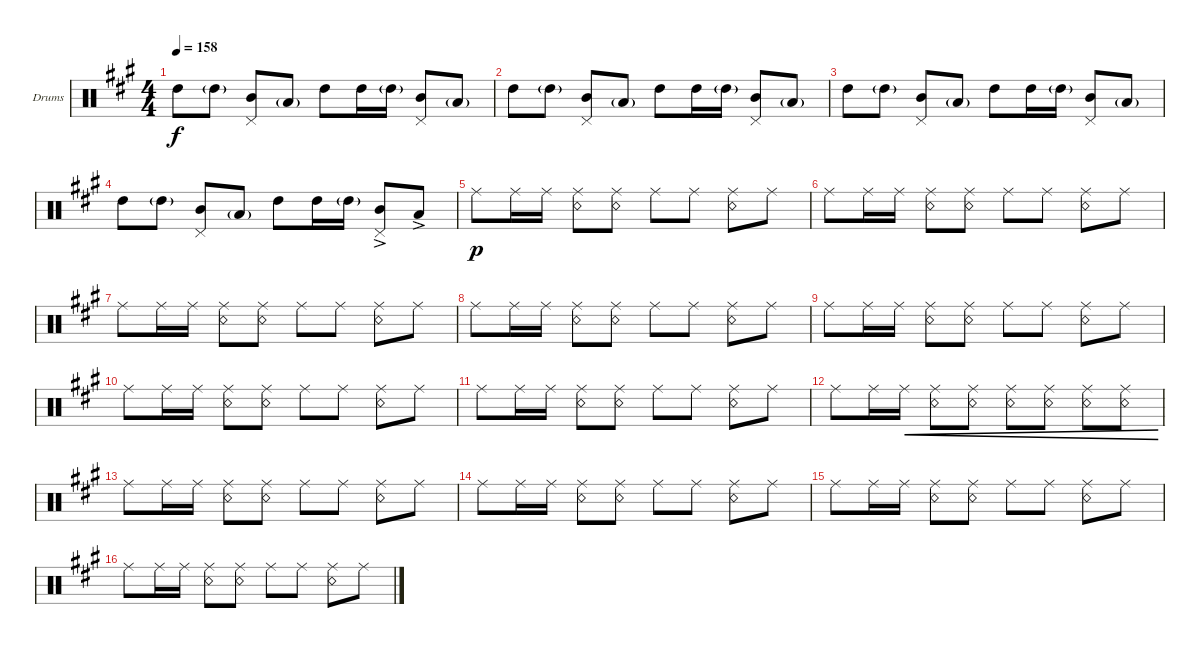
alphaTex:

\defaultSystemsLayout 4
\bracketExtendMode groupsimilarinstruments
\firstSystemTrackNameOrientation horizontal
\otherSystemsTrackNameOrientation horizontal
\track ("Drums" "Drums") {instrument percussion}
\staff {score}
\articulation defaults
\ts (4 4)
\tempo 158
\clef neutral
\scale
0.333333
\ks a "High Tom (hit)".8{dy f} "High Tom (hit)"{g}.8
("Mid Tom (hit)" "Pedal Hi-Hat (hit)").8 "Low Tom (hit)"{g}.8 "High Tom (hit)".8 "High Tom (hit)".16 "High Tom (hit)"{g}.16 ("Mid Tom (hit)" "Pedal Hi-Hat (hit)").8 "Low Tom (hit)"{g}.8 |
\scale
0.333333 "High Tom (hit)".8 "High Tom (hit)"{g}.8 ("Mid Tom (hit)" "Pedal Hi-Hat (hit)").8 "Low Tom (hit)"{g}.8 "High Tom (hit)".8 "High Tom (hit)".16 "High Tom (hit)"{g}.16 ("Mid Tom (hit)" "Pedal Hi-Hat (hit)").8 "Low Tom (hit)"{g}.8 |
\scale
0.333333 "High Tom (hit)".8 "High Tom (hit)"{g}.8 ("Mid Tom (hit)" "Pedal Hi-Hat (hit)").8 "Low Tom (hit)"{g}.8 "High Tom (hit)".8 "High Tom (hit)".16 "High Tom (hit)"{g}.16 ("Mid Tom (hit)" "Pedal Hi-Hat (hit)").8 "Low Tom (hit)"{g}.8 |
\scale
0.333333 "High Tom (hit)".8 "High Tom (hit)"{g}.8 ("Mid Tom (hit)" "Pedal Hi-Hat (hit)").8 "Low Tom (hit)"{g}.8 "High Tom (hit)".8 "High Tom (hit)".16 "High Tom (hit)"{g}.16 ("Mid Tom (hit)"{ac} "Pedal Hi-Hat (hit)").8 "Low Tom (hit)"{ac}.8 |
\scale
0.333333 "Ride (middle)".8{dy p} "Ride (middle)".16 "Ride (middle)".16 ("Ride (middle)" "Snare (rim shot)").8 ("Ride (middle)" "Snare (rim shot)").8 "Ride (middle)".8 "Ride (middle)".8 ("Ride (middle)" "Snare (rim shot)").8 "Ride (middle)".8 |
\scale
0.333333 "Ride (middle)".8 "Ride (middle)".16 "Ride (middle)".16 ("Ride (middle)" "Snare (rim shot)").8 ("Ride (middle)" "Snare (rim shot)").8 "Ride (middle)".8 "Ride (middle)".8 ("Ride (middle)" "Snare (rim shot)").8 "Ride (middle)".8 |
\scale
0.333333 "Ride (middle)".8 "Ride (middle)".16 "Ride (middle)".16 ("Ride (middle)" "Snare (rim shot)").8 ("Ride (middle)" "Snare (rim shot)").8 "Ride (middle)".8 "Ride (middle)".8 ("Ride (middle)" "Snare (rim shot)").8 "Ride (middle)".8 |
\scale
0.333333 "Ride (middle)".8 "Ride (middle)".16 "Ride (middle)".16 ("Ride (middle)" "Snare (rim shot)").8 ("Ride (middle)" "Snare (rim shot)").8 "Ride (middle)".8 "Ride (middle)".8 ("Ride (middle)" "Snare (rim shot)").8 "Ride (middle)".8 |
\scale
0.333333 "Ride (middle)".8 "Ride (middle)".16 "Ride (middle)".16 ("Ride (middle)" "Snare (rim shot)").8 ("Ride (middle)" "Snare (rim shot)").8 "Ride (middle)".8 "Ride (middle)".8 ("Ride (middle)" "Snare (rim shot)").8 "Ride (middle)".8 |
\scale
0.333333 "Ride (middle)".8 "Ride (middle)".16 "Ride (middle)".16 ("Ride (middle)" "Snare (rim shot)").8 ("Ride (middle)" "Snare (rim shot)").8 "Ride (middle)".8 "Ride (middle)".8 ("Ride (middle)" "Snare (rim shot)").8 "Ride (middle)".8 |
\scale
0.333333 "Ride (middle)".8 "Ride (middle)".16 "Ride (middle)".16 ("Ride (middle)" "Snare (rim shot)").8 ("Ride (middle)" "Snare (rim shot)").8 "Ride (middle)".8 "Ride (middle)".8 ("Ride (middle)" "Snare (rim shot)").8 "Ride (middle)".8 |
\scale
0.333333 "Ride (middle)".8 "Ride (middle)".16 "Ride (middle)".16{cre} ("Ride (middle)" "Snare (rim shot)").8{cre} ("Ride (middle)" "Snare (rim shot)").8{cre} ("Ride (middle)" "Snare (rim shot)").8{cre} ("Ride (middle)" "Snare (rim shot)").8{cre} ("Ride (middle)" "Snare (rim shot)").8{cre} ("Ride (middle)" "Snare (rim shot)").8{cre} |
\scale
0.333333 "Ride (middle)".8 "Ride (middle)".16 "Ride (middle)".16 ("Ride (middle)" "Snare (rim shot)").8 ("Ride (middle)" "Snare (rim shot)").8 "Ride (middle)".8 "Ride (middle)".8 ("Ride (middle)" "Snare (rim shot)").8 "Ride (middle)".8 |
\scale
0.333333 "Ride (middle)".8 "Ride (middle)".16 "Ride (middle)".16 ("Ride (middle)" "Snare (rim shot)").8 ("Ride (middle)" "Snare (rim shot)").8 "Ride (middle)".8 "Ride (middle)".8 ("Ride (middle)" "Snare (rim shot)").8 "Ride (middle)".8 |
\scale
0.333333 "Ride (middle)".8 "Ride (middle)".16 "Ride (middle)".16 ("Ride (middle)" "Snare (rim shot)").8 ("Ride (middle)" "Snare (rim shot)").8 "Ride (middle)".8 "Ride (middle)".8 ("Ride (middle)" "Snare (rim shot)").8 "Ride (middle)".8 |
\scale
0.333333 "Ride (middle)".8 "Ride (middle)".16 "Ride (middle)".16 ("Ride (middle)" "Snare (rim shot)").8 ("Ride (middle)" "Snare (rim shot)").8 "Ride (middle)".8 "Ride (middle)".8 ("Ride (middle)" "Snare (rim shot)").8 "Ride (middle)".8
